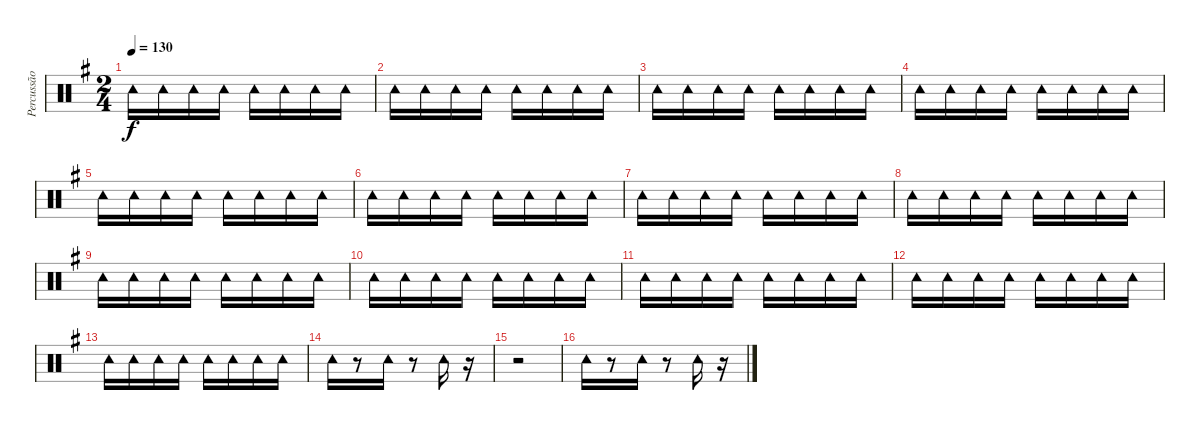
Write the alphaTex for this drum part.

\track ("Percussão" "Percussão") {instrument percussion}
\staff {score}
\articulation defaults
\ts (2 4)
\tempo 130
\clef neutral
\ks g "Tambourine (hit)".16{dy f} "Tambourine (hit)".16 "Tambourine (hit)".16 "Tambourine (hit)".16 "Tambourine (hit)".16 "Tambourine (hit)".16 "Tambourine (hit)".16 "Tambourine (hit)".16
|
"Tambourine (hit)".16 "Tambourine (hit)".16 "Tambourine (hit)".16 "Tambourine (hit)".16 "Tambourine (hit)".16 "Tambourine (hit)".16 "Tambourine (hit)".16 "Tambourine (hit)".16 |
"Tambourine (hit)".16 "Tambourine (hit)".16 "Tambourine (hit)".16 "Tambourine (hit)".16 "Tambourine (hit)".16 "Tambourine (hit)".16 "Tambourine (hit)".16 "Tambourine (hit)".16 |
"Tambourine (hit)".16 "Tambourine (hit)".16 "Tambourine (hit)".16 "Tambourine (hit)".16 "Tambourine (hit)".16 "Tambourine (hit)".16 "Tambourine (hit)".16 "Tambourine (hit)".16 |
"Tambourine (hit)".16 "Tambourine (hit)".16 "Tambourine (hit)".16 "Tambourine (hit)".16 "Tambourine (hit)".16 "Tambourine (hit)".16 "Tambourine (hit)".16 "Tambourine (hit)".16 |
"Tambourine (hit)".16 "Tambourine (hit)".16 "Tambourine (hit)".16 "Tambourine (hit)".16 "Tambourine (hit)".16 "Tambourine (hit)".16 "Tambourine (hit)".16 "Tambourine (hit)".16 |
"Tambourine (hit)".16 "Tambourine (hit)".16 "Tambourine (hit)".16 "Tambourine (hit)".16 "Tambourine (hit)".16 "Tambourine (hit)".16 "Tambourine (hit)".16 "Tambourine (hit)".16 |
"Tambourine (hit)".16 "Tambourine (hit)".16 "Tambourine (hit)".16 "Tambourine (hit)".16 "Tambourine (hit)".16 "Tambourine (hit)".16 "Tambourine (hit)".16 "Tambourine (hit)".16 |
"Tambourine (hit)".16 "Tambourine (hit)".16 "Tambourine (hit)".16 "Tambourine (hit)".16 "Tambourine (hit)".16 "Tambourine (hit)".16 "Tambourine (hit)".16 "Tambourine (hit)".16 |
"Tambourine (hit)".16 "Tambourine (hit)".16 "Tambourine (hit)".16 "Tambourine (hit)".16 "Tambourine (hit)".16 "Tambourine (hit)".16 "Tambourine (hit)".16 "Tambourine (hit)".16 |
"Tambourine (hit)".16 "Tambourine (hit)".16 "Tambourine (hit)".16 "Tambourine (hit)".16 "Tambourine (hit)".16 "Tambourine (hit)".16 "Tambourine (hit)".16 "Tambourine (hit)".16 |
"Tambourine (hit)".16 "Tambourine (hit)".16 "Tambourine (hit)".16 "Tambourine (hit)".16 "Tambourine (hit)".16 "Tambourine (hit)".16 "Tambourine (hit)".16 "Tambourine (hit)".16 |
"Tambourine (hit)".16 "Tambourine (hit)".16 "Tambourine (hit)".16 "Tambourine (hit)".16 "Tambourine (hit)".16 "Tambourine (hit)".16 "Tambourine (hit)".16 "Tambourine (hit)".16 |
"Tambourine (hit)".16 r.8 "Tambourine (hit)".16 r.8 "Tambourine (hit)".16 r.16 |
r.2 |
"Tambourine (hit)".16 r.8 "Tambourine (hit)".16 r.8 "Tambourine (hit)".16 r.16
